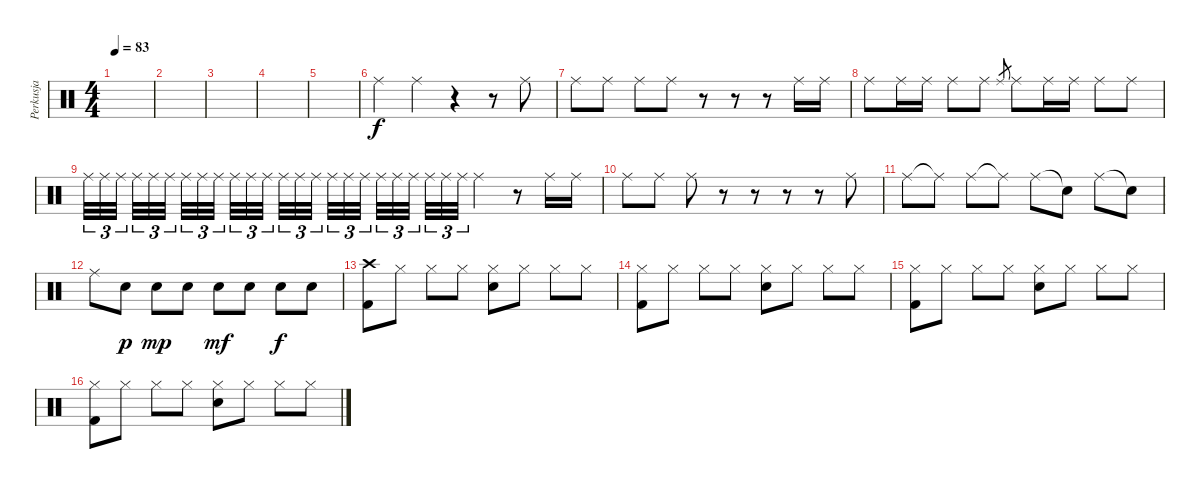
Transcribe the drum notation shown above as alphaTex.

\track ("Perkusja" "Perkusja") {instrument percussion}
\staff {score}
\articulation defaults
\ts (4 4)
\tempo 83
\clef neutral
\ks c
|
|
|
|
|
"Ride (middle)".4 "Ride (middle)".4 r.4 r.8 "Ride (middle)".8 |
"Ride (middle)".8 "Ride (middle)".8 "Ride (middle)".8 "Ride (middle)".8 r.8 r.8 r.8 "Ride (middle)".16 "Ride (middle)".16 |
"Ride (middle)".8 "Ride (middle)".16 "Ride (middle)".16 "Ride (middle)".8 "Ride (middle)".8 "Ride (middle)".8{gr} "Ride (middle)".8 "Ride (middle)".16 "Ride (middle)".16 "Ride (middle)".8 "Ride (middle)".8 |
"Ride (middle)".32{tu (3 2)} "Ride (middle)".32{tu (3 2)} "Ride (middle)".32{tu (3 2)} "Ride (middle)".32{tu (3 2)} "Ride (middle)".32{tu (3 2)} "Ride (middle)".32{tu (3 2)} "Ride (middle)".32{tu (3 2)} "Ride (middle)".32{tu (3 2)} "Ride (middle)".32{tu (3 2)} "Ride (middle)".32{tu (3 2)} "Ride (middle)".32{tu (3 2)} "Ride (middle)".32{tu (3 2)} "Ride (middle)".32{tu (3 2)} "Ride (middle)".32{tu (3 2)} "Ride (middle)".32{tu (3 2)} "Ride (middle)".32{tu (3 2)} "Ride (middle)".32{tu (3 2)} "Ride (middle)".32{tu (3 2)} "Ride (middle)".32{tu (3 2)} "Ride (middle)".32{tu (3 2)} "Ride (middle)".32{tu (3 2)} "Ride (middle)".32{tu (3 2)} "Ride (middle)".32{tu (3 2)} "Ride (middle)".32{tu (3 2)} "Ride (middle)".4 r.8 "Ride (middle)".16 "Ride (middle)".16 |
"Ride (middle)".8 "Ride (middle)".8 "Ride (middle)".8 r.8 r.8 r.8 r.8 "Ride (middle)".8 |
"Ride (middle)".8 "Ride (middle)"{t}.8 "Ride (middle)".8 "Ride (middle)"{t}.8 "Ride (middle)".8 "Snare (hit)"{t}.8 "Ride (middle)".8 "Snare (hit)"{t}.8 |
"Ride (middle)".8 "Snare (hit) 2".8{dy p} "Snare (hit) 2".8{dy mp} "Snare (hit) 2".8 "Snare (hit) 2".8{dy mf} "Snare (hit) 2".8 "Snare (hit) 2".8{dy f} "Snare (hit) 2".8 |
("Crash high (hit)" "Kick (hit) 2").8 "Hi-Hat (closed)".8 "Hi-Hat (closed)".8 "Hi-Hat (closed)".8 ("Hi-Hat (closed)" "Snare (hit) 2").8 "Hi-Hat (closed)".8 "Hi-Hat (closed)".8 "Hi-Hat (closed)".8 |
("Hi-Hat (closed)" "Kick (hit) 2").8 "Hi-Hat (closed)".8 "Hi-Hat (closed)".8 "Hi-Hat (closed)".8 ("Hi-Hat (closed)" "Snare (hit) 2").8 "Hi-Hat (closed)".8 "Hi-Hat (closed)".8 "Hi-Hat (closed)".8 |
("Hi-Hat (closed)" "Kick (hit) 2").8 "Hi-Hat (closed)".8 "Hi-Hat (closed)".8 "Hi-Hat (closed)".8 ("Hi-Hat (closed)" "Snare (hit) 2").8 "Hi-Hat (closed)".8 "Hi-Hat (closed)".8 "Hi-Hat (closed)".8 |
("Hi-Hat (closed)" "Kick (hit) 2").8 "Hi-Hat (closed)".8 "Hi-Hat (closed)".8 "Hi-Hat (closed)".8 ("Hi-Hat (closed)" "Snare (hit) 2").8 "Hi-Hat (closed)".8 "Hi-Hat (closed)".8 "Hi-Hat (closed)".8
